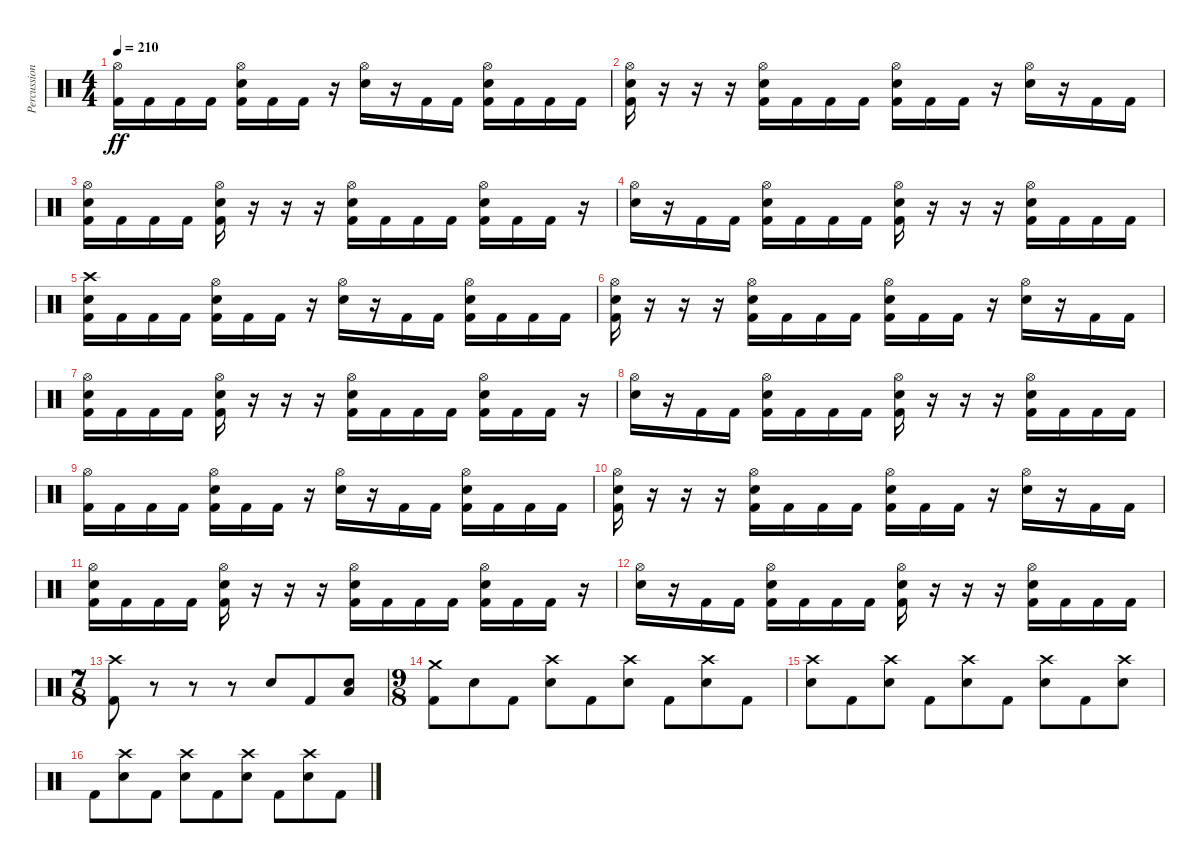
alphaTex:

\track ("Percussion" "Percussion") {instrument percussion}
\staff {score}
\articulation defaults
\ts (4 4)
\tempo 210
\clef neutral
\ks c
("Hi-Hat (open)" "Kick (hit) 2").16{dy ff} "Kick (hit) 2".16 "Kick (hit) 2".16 "Kick (hit) 2".16 ("Hi-Hat (open)" "Electric Snare (hit)" "Kick (hit) 2").16 "Kick (hit) 2".16 "Kick (hit) 2".16 r.16 ("Hi-Hat (open)" "Electric Snare (hit)").16 r.16 "Kick (hit) 2".16 "Kick (hit) 2".16 ("Hi-Hat (open)" "Electric Snare (hit)" "Kick (hit) 2").16 "Kick (hit) 2".16 "Kick (hit) 2".16 "Kick (hit) 2".16 |
("Hi-Hat (open)" "Electric Snare (hit)" "Kick (hit) 2").16 r.16 r.16 r.16 ("Hi-Hat (open)" "Electric Snare (hit)" "Kick (hit) 2").16 "Kick (hit) 2".16 "Kick (hit) 2".16 "Kick (hit) 2".16 ("Hi-Hat (open)" "Electric Snare (hit)" "Kick (hit) 2").16 "Kick (hit) 2".16 "Kick (hit) 2".16 r.16 ("Hi-Hat (open)" "Electric Snare (hit)").16 r.16 "Kick (hit) 2".16 "Kick (hit) 2".16 |
("Hi-Hat (open)" "Electric Snare (hit)" "Kick (hit) 2").16 "Kick (hit) 2".16 "Kick (hit) 2".16 "Kick (hit) 2".16 ("Hi-Hat (open)" "Electric Snare (hit)" "Kick (hit) 2").16 r.16 r.16 r.16 ("Hi-Hat (open)" "Electric Snare (hit)" "Kick (hit) 2").16 "Kick (hit) 2".16 "Kick (hit) 2".16 "Kick (hit) 2".16 ("Hi-Hat (open)" "Electric Snare (hit)" "Kick (hit) 2").16 "Kick (hit) 2".16 "Kick (hit) 2".16 r.16 |
("Hi-Hat (open)" "Electric Snare (hit)").16 r.16 "Kick (hit) 2".16 "Kick (hit) 2".16 ("Hi-Hat (open)" "Electric Snare (hit)" "Kick (hit) 2").16 "Kick (hit) 2".16 "Kick (hit) 2".16 "Kick (hit) 2".16 ("Hi-Hat (open)" "Electric Snare (hit)" "Kick (hit) 2").16 r.16 r.16 r.16 ("Hi-Hat (open)" "Electric Snare (hit)" "Kick (hit) 2").16 "Kick (hit) 2".16 "Kick (hit) 2".16 "Kick (hit) 2".16 |
("Crash high (hit)" "Electric Snare (hit)" "Kick (hit) 2").16 "Kick (hit) 2".16 "Kick (hit) 2".16 "Kick (hit) 2".16 ("Hi-Hat (open)" "Electric Snare (hit)" "Kick (hit) 2").16 "Kick (hit) 2".16 "Kick (hit) 2".16 r.16 ("Hi-Hat (open)" "Electric Snare (hit)").16 r.16 "Kick (hit) 2".16 "Kick (hit) 2".16 ("Hi-Hat (open)" "Electric Snare (hit)" "Kick (hit) 2").16 "Kick (hit) 2".16 "Kick (hit) 2".16 "Kick (hit) 2".16 |
("Hi-Hat (open)" "Electric Snare (hit)" "Kick (hit) 2").16 r.16 r.16 r.16 ("Hi-Hat (open)" "Electric Snare (hit)" "Kick (hit) 2").16 "Kick (hit) 2".16 "Kick (hit) 2".16 "Kick (hit) 2".16 ("Hi-Hat (open)" "Electric Snare (hit)" "Kick (hit) 2").16 "Kick (hit) 2".16 "Kick (hit) 2".16 r.16 ("Hi-Hat (open)" "Electric Snare (hit)").16 r.16 "Kick (hit) 2".16 "Kick (hit) 2".16 |
("Hi-Hat (open)" "Electric Snare (hit)" "Kick (hit) 2").16 "Kick (hit) 2".16 "Kick (hit) 2".16 "Kick (hit) 2".16 ("Hi-Hat (open)" "Electric Snare (hit)" "Kick (hit) 2").16 r.16 r.16 r.16 ("Hi-Hat (open)" "Electric Snare (hit)" "Kick (hit) 2").16 "Kick (hit) 2".16 "Kick (hit) 2".16 "Kick (hit) 2".16 ("Hi-Hat (open)" "Electric Snare (hit)" "Kick (hit) 2").16 "Kick (hit) 2".16 "Kick (hit) 2".16 r.16 |
("Hi-Hat (open)" "Electric Snare (hit)").16 r.16 "Kick (hit) 2".16 "Kick (hit) 2".16 ("Hi-Hat (open)" "Electric Snare (hit)" "Kick (hit) 2").16 "Kick (hit) 2".16 "Kick (hit) 2".16 "Kick (hit) 2".16 ("Hi-Hat (open)" "Electric Snare (hit)" "Kick (hit) 2").16 r.16 r.16 r.16 ("Hi-Hat (open)" "Electric Snare (hit)" "Kick (hit) 2").16 "Kick (hit) 2".16 "Kick (hit) 2".16 "Kick (hit) 2".16 |
("Hi-Hat (open)" "Kick (hit) 2").16 "Kick (hit) 2".16 "Kick (hit) 2".16 "Kick (hit) 2".16 ("Hi-Hat (open)" "Electric Snare (hit)" "Kick (hit) 2").16 "Kick (hit) 2".16 "Kick (hit) 2".16 r.16 ("Hi-Hat (open)" "Electric Snare (hit)").16 r.16 "Kick (hit) 2".16 "Kick (hit) 2".16 ("Hi-Hat (open)" "Electric Snare (hit)" "Kick (hit) 2").16 "Kick (hit) 2".16 "Kick (hit) 2".16 "Kick (hit) 2".16 |
("Hi-Hat (open)" "Electric Snare (hit)" "Kick (hit) 2").16 r.16 r.16 r.16 ("Hi-Hat (open)" "Electric Snare (hit)" "Kick (hit) 2").16 "Kick (hit) 2".16 "Kick (hit) 2".16 "Kick (hit) 2".16 ("Hi-Hat (open)" "Electric Snare (hit)" "Kick (hit) 2").16 "Kick (hit) 2".16 "Kick (hit) 2".16 r.16 ("Hi-Hat (open)" "Electric Snare (hit)").16 r.16 "Kick (hit) 2".16 "Kick (hit) 2".16 |
("Hi-Hat (open)" "Electric Snare (hit)" "Kick (hit) 2").16 "Kick (hit) 2".16 "Kick (hit) 2".16 "Kick (hit) 2".16 ("Hi-Hat (open)" "Electric Snare (hit)" "Kick (hit) 2").16 r.16 r.16 r.16 ("Hi-Hat (open)" "Electric Snare (hit)" "Kick (hit) 2").16 "Kick (hit) 2".16 "Kick (hit) 2".16 "Kick (hit) 2".16 ("Hi-Hat (open)" "Electric Snare (hit)" "Kick (hit) 2").16 "Kick (hit) 2".16 "Kick (hit) 2".16 r.16 |
("Hi-Hat (open)" "Electric Snare (hit)").16 r.16 "Kick (hit) 2".16 "Kick (hit) 2".16 ("Hi-Hat (open)" "Electric Snare (hit)" "Kick (hit) 2").16 "Kick (hit) 2".16 "Kick (hit) 2".16 "Kick (hit) 2".16 ("Hi-Hat (open)" "Electric Snare (hit)" "Kick (hit) 2").16 r.16 r.16 r.16 ("Hi-Hat (open)" "Electric Snare (hit)" "Kick (hit) 2").16 "Kick (hit) 2".16 "Kick (hit) 2".16 "Kick (hit) 2".16 |
\ts (7 8)
("Crash high (hit)" "Kick (hit) 2").8 r.8 r.8 r.8 "Electric Snare (hit)".8 "Kick (hit) 2".8 ("Low Floor Tom (hit)" "Electric Snare (hit)").8 |
\ts (9 8)
("Crash medium (hit)" "Kick (hit) 2").8 "Electric Snare (hit)".8 "Kick (hit) 2".8 ("Crash high (hit)" "Electric Snare (hit)").8 "Kick (hit) 2".8 ("Crash high (hit)" "Electric Snare (hit)").8 "Kick (hit) 2".8 ("Crash high (hit)" "Electric Snare (hit)").8 "Kick (hit) 2".8 |
("Crash high (hit)" "Electric Snare (hit)").8 "Kick (hit) 2".8 ("Crash high (hit)" "Electric Snare (hit)").8 "Kick (hit) 2".8 ("Crash high (hit)" "Electric Snare (hit)").8 "Kick (hit) 2".8 ("Crash high (hit)" "Electric Snare (hit)").8 "Kick (hit) 2".8 ("Crash high (hit)" "Electric Snare (hit)").8 |
"Kick (hit) 2".8 ("Crash high (hit)" "Electric Snare (hit)").8 "Kick (hit) 2".8 ("Crash high (hit)" "Electric Snare (hit)").8 "Kick (hit) 2".8 ("Crash high (hit)" "Electric Snare (hit)").8 "Kick (hit) 2".8 ("Crash high (hit)" "Electric Snare (hit)").8 "Kick (hit) 2".8
